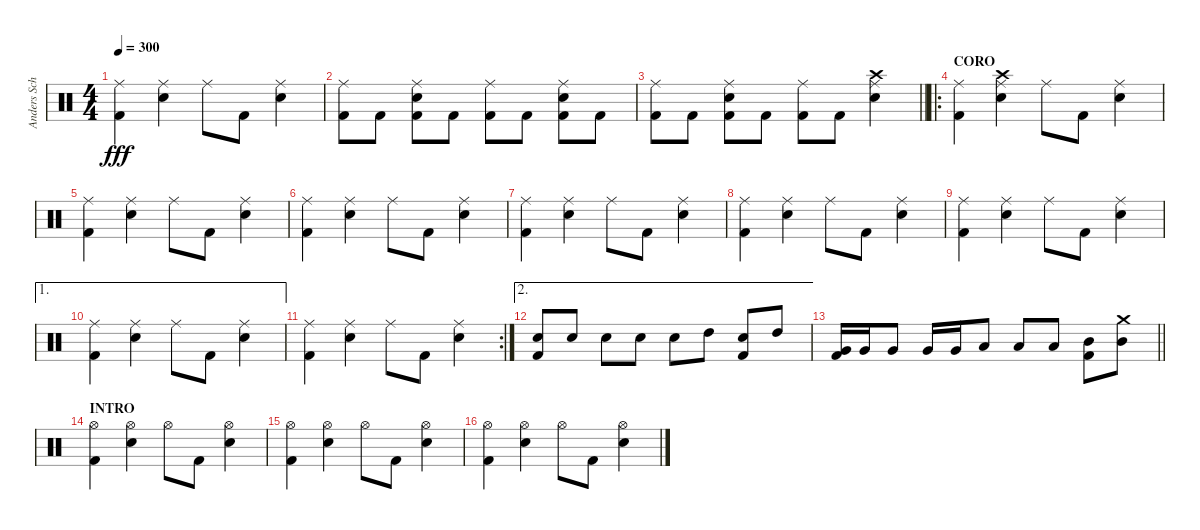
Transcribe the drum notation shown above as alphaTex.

\track ("Anders Schultz" "Anders Sch") {instrument percussion}
\staff {score}
\articulation defaults
\ts (4 4)
\tempo 300
\clef neutral
\ks c
("Ride (middle)" "Kick (hit) 2").4{dy fff} ("Ride (middle)" "Snare (hit) 2").4 "Ride (middle)".8 "Kick (hit) 2".8 ("Ride (middle)" "Snare (hit) 2").4 |
("Ride (middle)" "Kick (hit) 2").8 "Kick (hit) 2".8 ("Ride (middle)" "Snare (hit) 2" "Kick (hit) 2").8 "Kick (hit) 2".8 ("Ride (middle)" "Kick (hit) 2").8 "Kick (hit) 2".8 ("Ride (middle)" "Snare (hit) 2" "Kick (hit) 2").8 "Kick (hit) 2".8 |
\barLineRight lightlight
("Ride (middle)" "Kick (hit) 2").8 "Kick (hit) 2".8 ("Ride (middle)" "Snare (hit) 2" "Kick (hit) 2").8 "Kick (hit) 2".8 ("Ride (middle)" "Kick (hit) 2").8 "Kick (hit) 2".8 ("Ride (middle)" "Crash high (hit)" "Snare (hit) 2").4 |
\ro
\section ("" "CORO")
("Ride (middle)" "Kick (hit) 2").4 ("Ride (middle)" "Crash high (hit)" "Snare (hit) 2").4 "Ride (middle)".8 "Kick (hit) 2".8 ("Ride (middle)" "Snare (hit) 2").4 |
("Ride (middle)" "Kick (hit) 2").4 ("Ride (middle)" "Snare (hit) 2").4 "Ride (middle)".8 "Kick (hit) 2".8 ("Ride (middle)" "Snare (hit) 2").4 |
("Ride (middle)" "Kick (hit) 2").4 ("Ride (middle)" "Snare (hit) 2").4 "Ride (middle)".8 "Kick (hit) 2".8 ("Ride (middle)" "Snare (hit) 2").4 |
("Ride (middle)" "Kick (hit) 2").4 ("Ride (middle)" "Snare (hit) 2").4 "Ride (middle)".8 "Kick (hit) 2".8 ("Ride (middle)" "Snare (hit) 2").4 |
("Ride (middle)" "Kick (hit) 2").4 ("Ride (middle)" "Snare (hit) 2").4 "Ride (middle)".8 "Kick (hit) 2".8 ("Ride (middle)" "Snare (hit) 2").4 |
("Ride (middle)" "Kick (hit) 2").4 ("Ride (middle)" "Snare (hit) 2").4 "Ride (middle)".8 "Kick (hit) 2".8 ("Ride (middle)" "Snare (hit) 2").4 |
\ae 1
("Ride (middle)" "Kick (hit) 2").4 ("Ride (middle)" "Snare (hit) 2").4 "Ride (middle)".8 "Kick (hit) 2".8 ("Ride (middle)" "Snare (hit) 2").4 |
\rc 2
("Ride (middle)" "Kick (hit) 2").4 ("Ride (middle)" "Snare (hit) 2").4 "Ride (middle)".8 "Kick (hit) 2".8 ("Ride (middle)" "Snare (hit) 2").4 |
\ae 2
("Snare (hit) 2" "Kick (hit) 2").8 "Snare (hit) 2".8 "Snare (hit) 2".8 "Snare (hit) 2".8 "Snare (hit) 2".8 "High Tom (hit)".8 ("Snare (hit) 2" "Kick (hit) 2").8 "High Tom (hit)".8 |
\barLineRight lightlight
("Kick (hit) 2" "Very Low Tom (hit)").16 "Very Low Tom (hit)".16 "Very Low Tom (hit)".8 "Very Low Tom (hit)".16 "Very Low Tom (hit)".16 "Low Tom (hit)".8 "Low Tom (hit)".8 "Low Tom (hit)".8 ("Kick (hit) 2" "Mid Tom (hit)").8 ("Crash medium (hit)" "Mid Tom (hit)").8 |
\section ("" "INTRO")
("Hi-Hat (open)" "Kick (hit) 2").4 ("Hi-Hat (open)" "Snare (hit) 2").4 "Hi-Hat (open)".8 "Kick (hit) 2".8 ("Hi-Hat (open)" "Snare (hit) 2").4 |
("Hi-Hat (open)" "Kick (hit) 2").4 ("Hi-Hat (open)" "Snare (hit) 2").4 "Hi-Hat (open)".8 "Kick (hit) 2".8 ("Hi-Hat (open)" "Snare (hit) 2").4 |
("Hi-Hat (open)" "Kick (hit) 2").4 ("Hi-Hat (open)" "Snare (hit) 2").4 "Hi-Hat (open)".8 "Kick (hit) 2".8 ("Hi-Hat (open)" "Snare (hit) 2").4
